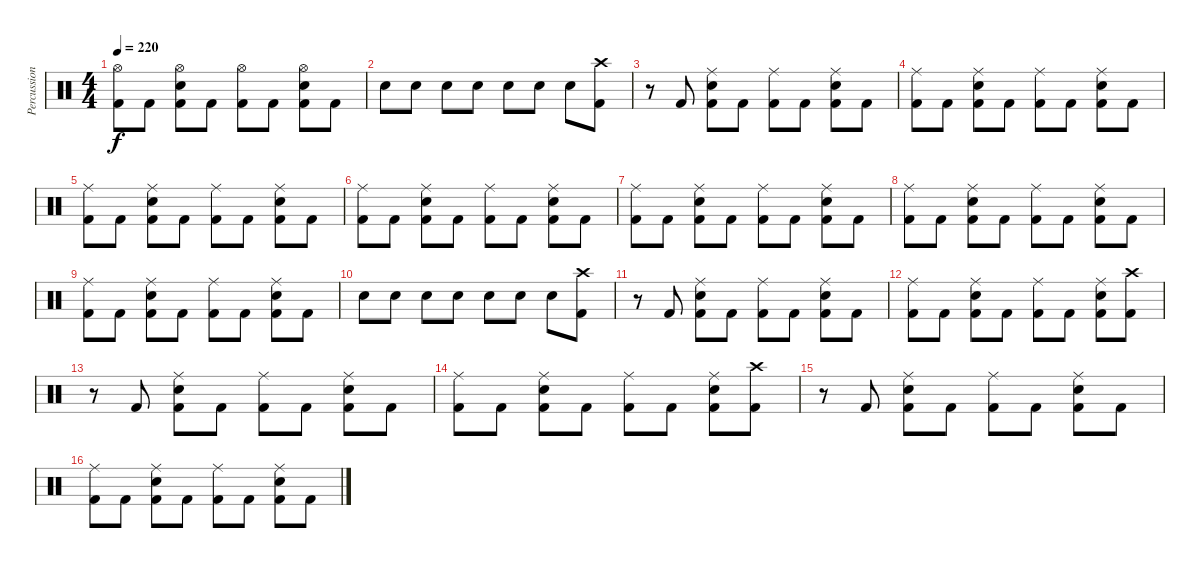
\track ("Percussions" "Percussion") {instrument percussion}
\staff {score}
\articulation defaults
\ts (4 4)
\tempo 220
\clef neutral
\ks c
("Hi-Hat (open)" "Kick (hit) 2").8{dy f} "Kick (hit) 2".8 ("Hi-Hat (open)" "Electric Snare (hit)" "Kick (hit) 2").8 "Kick (hit) 2".8 ("Hi-Hat (open)" "Kick (hit) 2").8 "Kick (hit) 2".8 ("Hi-Hat (open)" "Electric Snare (hit)" "Kick (hit) 2").8 "Kick (hit) 2".8 |
"Electric Snare (hit)".8 "Electric Snare (hit)".8 "Electric Snare (hit)".8 "Electric Snare (hit)".8 "Electric Snare (hit)".8 "Electric Snare (hit)".8 "Electric Snare (hit)".8 ("Crash high (hit)" "Kick (hit) 2").8 |
r.8 "Kick (hit) 2".8 ("Ride (middle)" "Electric Snare (hit)" "Kick (hit) 2").8 "Kick (hit) 2".8 ("Ride (middle)" "Kick (hit) 2").8 "Kick (hit) 2".8 ("Ride (middle)" "Electric Snare (hit)" "Kick (hit) 2").8 "Kick (hit) 2".8 |
("Ride (middle)" "Kick (hit) 2").8 "Kick (hit) 2".8 ("Ride (middle)" "Electric Snare (hit)" "Kick (hit) 2").8 "Kick (hit) 2".8 ("Ride (middle)" "Kick (hit) 2").8 "Kick (hit) 2".8 ("Ride (middle)" "Electric Snare (hit)" "Kick (hit) 2").8 "Kick (hit) 2".8 |
("Ride (middle)" "Kick (hit) 2").8 "Kick (hit) 2".8 ("Ride (middle)" "Electric Snare (hit)" "Kick (hit) 2").8 "Kick (hit) 2".8 ("Ride (middle)" "Kick (hit) 2").8 "Kick (hit) 2".8 ("Ride (middle)" "Electric Snare (hit)" "Kick (hit) 2").8 "Kick (hit) 2".8 |
("Ride (middle)" "Kick (hit) 2").8 "Kick (hit) 2".8 ("Ride (middle)" "Electric Snare (hit)" "Kick (hit) 2").8 "Kick (hit) 2".8 ("Ride (middle)" "Kick (hit) 2").8 "Kick (hit) 2".8 ("Ride (middle)" "Electric Snare (hit)" "Kick (hit) 2").8 "Kick (hit) 2".8 |
("Ride (middle)" "Kick (hit) 2").8 "Kick (hit) 2".8 ("Ride (middle)" "Electric Snare (hit)" "Kick (hit) 2").8 "Kick (hit) 2".8 ("Ride (middle)" "Kick (hit) 2").8 "Kick (hit) 2".8 ("Ride (middle)" "Electric Snare (hit)" "Kick (hit) 2").8 "Kick (hit) 2".8 |
("Ride (middle)" "Kick (hit) 2").8 "Kick (hit) 2".8 ("Ride (middle)" "Electric Snare (hit)" "Kick (hit) 2").8 "Kick (hit) 2".8 ("Ride (middle)" "Kick (hit) 2").8 "Kick (hit) 2".8 ("Ride (middle)" "Electric Snare (hit)" "Kick (hit) 2").8 "Kick (hit) 2".8 |
("Ride (middle)" "Kick (hit) 2").8 "Kick (hit) 2".8 ("Ride (middle)" "Electric Snare (hit)" "Kick (hit) 2").8 "Kick (hit) 2".8 ("Ride (middle)" "Kick (hit) 2").8 "Kick (hit) 2".8 ("Ride (middle)" "Electric Snare (hit)" "Kick (hit) 2").8 "Kick (hit) 2".8 |
"Electric Snare (hit)".8 "Electric Snare (hit)".8 "Electric Snare (hit)".8 "Electric Snare (hit)".8 "Electric Snare (hit)".8 "Electric Snare (hit)".8 "Electric Snare (hit)".8 ("Crash high (hit)" "Kick (hit) 2").8 |
r.8 "Kick (hit) 2".8 ("Ride (middle)" "Electric Snare (hit)" "Kick (hit) 2").8 "Kick (hit) 2".8 ("Ride (middle)" "Kick (hit) 2").8 "Kick (hit) 2".8 ("Ride (middle)" "Electric Snare (hit)" "Kick (hit) 2").8 "Kick (hit) 2".8 |
("Ride (middle)" "Kick (hit) 2").8 "Kick (hit) 2".8 ("Ride (middle)" "Electric Snare (hit)" "Kick (hit) 2").8 "Kick (hit) 2".8 ("Ride (middle)" "Kick (hit) 2").8 "Kick (hit) 2".8 ("Ride (middle)" "Electric Snare (hit)" "Kick (hit) 2").8 ("Crash high (hit)" "Kick (hit) 2").8 |
r.8 "Kick (hit) 2".8 ("Ride (middle)" "Electric Snare (hit)" "Kick (hit) 2").8 "Kick (hit) 2".8 ("Ride (middle)" "Kick (hit) 2").8 "Kick (hit) 2".8 ("Ride (middle)" "Electric Snare (hit)" "Kick (hit) 2").8 "Kick (hit) 2".8 |
("Ride (middle)" "Kick (hit) 2").8 "Kick (hit) 2".8 ("Ride (middle)" "Electric Snare (hit)" "Kick (hit) 2").8 "Kick (hit) 2".8 ("Ride (middle)" "Kick (hit) 2").8 "Kick (hit) 2".8 ("Ride (middle)" "Electric Snare (hit)" "Kick (hit) 2").8 ("Crash high (hit)" "Kick (hit) 2").8 |
r.8 "Kick (hit) 2".8 ("Ride (middle)" "Electric Snare (hit)" "Kick (hit) 2").8 "Kick (hit) 2".8 ("Ride (middle)" "Kick (hit) 2").8 "Kick (hit) 2".8 ("Ride (middle)" "Electric Snare (hit)" "Kick (hit) 2").8 "Kick (hit) 2".8 |
("Ride (middle)" "Kick (hit) 2").8 "Kick (hit) 2".8 ("Ride (middle)" "Electric Snare (hit)" "Kick (hit) 2").8 "Kick (hit) 2".8 ("Ride (middle)" "Kick (hit) 2").8 "Kick (hit) 2".8 ("Ride (middle)" "Electric Snare (hit)" "Kick (hit) 2").8 "Kick (hit) 2".8
